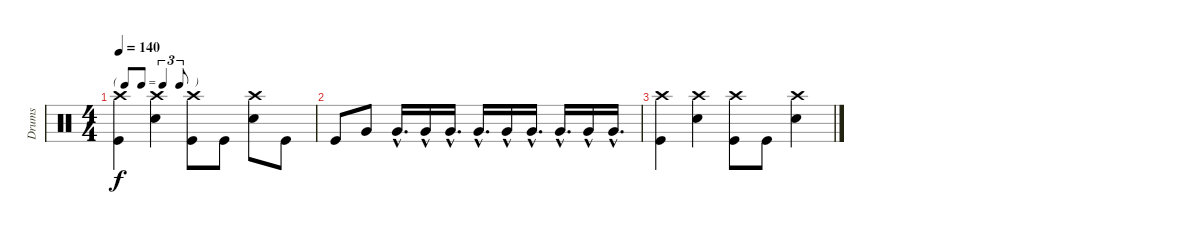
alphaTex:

\track ("Drums" "Drums") {instrument percussion}
\staff {score}
\articulation defaults
\ts (4 4)
\tf triplet8th
\tempo 140
\clef neutral
\ks c
("Crash high (hit)" "Kick (hit)").4{dy f} ("Crash high (hit)" "Snare (hit) 2").4 ("Crash high (hit)" "Kick (hit)").8 "Kick (hit)".8 ("Crash high (hit)" "Snare (hit) 2").8 "Kick (hit)".8 |
"Kick (hit)".8 "Very Low Tom (hit)".8 "Very Low Tom (hit)"{hac}.16{d} "Very Low Tom (hit)"{hac}.16 "Very Low Tom (hit)"{hac}.16{d} "Very Low Tom (hit)"{hac}.16{d} "Very Low Tom (hit)"{hac}.16 "Very Low Tom (hit)"{hac}.16{d} "Very Low Tom (hit)"{hac}.16{d} "Very Low Tom (hit)"{hac}.16 "Very Low Tom (hit)"{hac}.16{d} |
("Crash high (hit)" "Kick (hit)").4 ("Crash high (hit)" "Snare (hit) 2").4 ("Crash high (hit)" "Kick (hit)").8 "Kick (hit)".8 ("Crash high (hit)" "Snare (hit) 2").4
